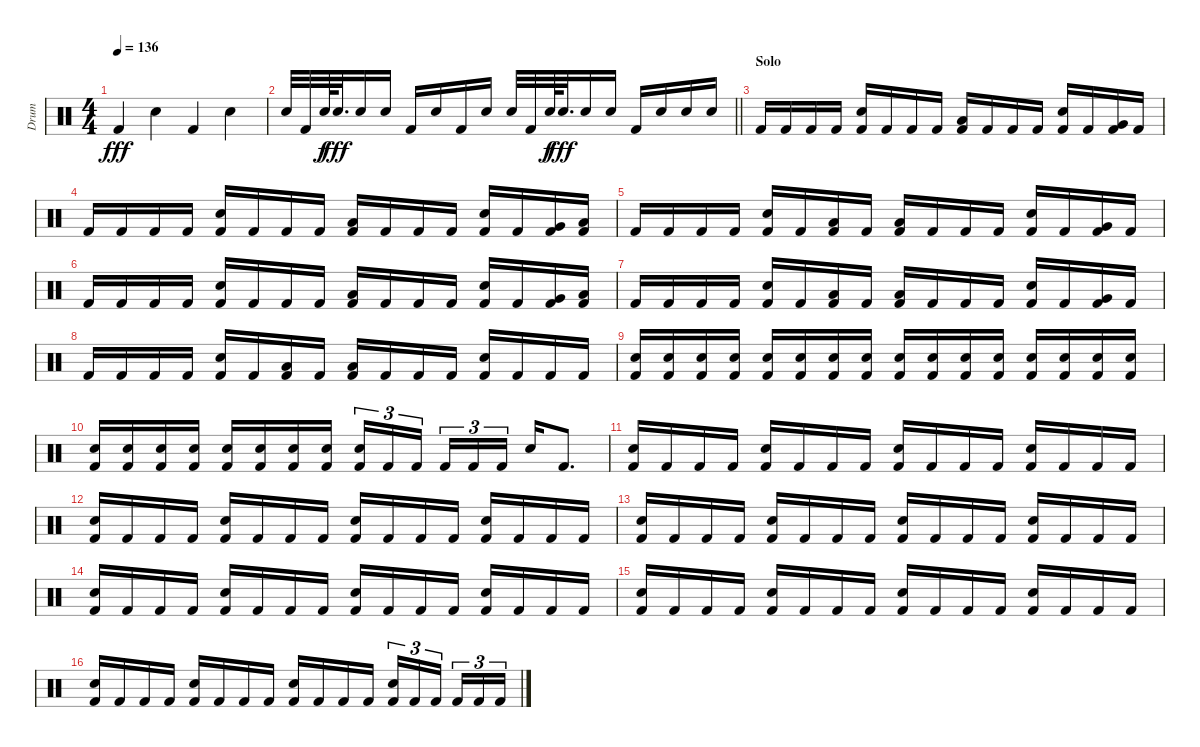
\track ("Drum" "Drum") {instrument percussion}
\staff {score}
\articulation defaults
\ts (4 4)
\tempo 136
\clef neutral
\ks c "Kick (hit) 2".4{dy fff} "Electric Snare (hit)".4 "Kick (hit) 2".4 "Electric Snare (hit)".4
|
\barLineRight lightlight "Electric Snare (hit)".32 "Kick (hit) 2".32 "Electric Snare (hit)".64{dy f} "Electric Snare (hit)".32{d dy fff} "Electric Snare (hit)".16 "Electric Snare (hit)".16 "Kick (hit) 2".16 "Electric Snare (hit)".16 "Kick (hit) 2".16 "Electric Snare (hit)".16 "Electric Snare (hit)".32 "Kick (hit) 2".32 "Electric Snare (hit)".64{dy f} "Electric Snare (hit)".32{d dy fff} "Electric Snare (hit)".16 "Electric Snare (hit)".16 "Kick (hit) 2".16 "Electric Snare (hit)".16 "Electric Snare (hit)".16 "Electric Snare (hit)".16
|
\section ("" "Solo")
"Kick (hit) 2".16 "Kick (hit) 2".16 "Kick (hit) 2".16 "Kick (hit) 2".16 ("Electric Snare (hit)" "Kick (hit) 2").16 "Kick (hit) 2".16 "Kick (hit) 2".16 "Kick (hit) 2".16 ("Low Tom (hit)" "Kick (hit) 2").16 "Kick (hit) 2".16 "Kick (hit) 2".16 "Kick (hit) 2".16 ("Electric Snare (hit)" "Kick (hit) 2").16 "Kick (hit) 2".16 ("Very Low Tom (hit)" "Kick (hit) 2").16 "Kick (hit) 2".16 |
"Kick (hit) 2".16 "Kick (hit) 2".16 "Kick (hit) 2".16 "Kick (hit) 2".16 ("Electric Snare (hit)" "Kick (hit) 2").16 "Kick (hit) 2".16 "Kick (hit) 2".16 "Kick (hit) 2".16 ("Low Tom (hit)" "Kick (hit) 2").16 "Kick (hit) 2".16 "Kick (hit) 2".16 "Kick (hit) 2".16 ("Electric Snare (hit)" "Kick (hit) 2").16 "Kick (hit) 2".16 ("Very Low Tom (hit)" "Kick (hit) 2").16 ("Low Floor Tom (hit)" "Kick (hit) 2").16 |
"Kick (hit) 2".16 "Kick (hit) 2".16 "Kick (hit) 2".16 "Kick (hit) 2".16 ("Electric Snare (hit)" "Kick (hit) 2").16 "Kick (hit) 2".16 ("Low Tom (hit)" "Kick (hit) 2").16 "Kick (hit) 2".16 ("Low Tom (hit)" "Kick (hit) 2").16 "Kick (hit) 2".16 "Kick (hit) 2".16 "Kick (hit) 2".16 ("Electric Snare (hit)" "Kick (hit) 2").16 "Kick (hit) 2".16 ("Very Low Tom (hit)" "Kick (hit) 2").16 "Kick (hit) 2".16 |
"Kick (hit) 2".16 "Kick (hit) 2".16 "Kick (hit) 2".16 "Kick (hit) 2".16 ("Electric Snare (hit)" "Kick (hit) 2").16 "Kick (hit) 2".16 "Kick (hit) 2".16 "Kick (hit) 2".16 ("Low Tom (hit)" "Kick (hit) 2").16 "Kick (hit) 2".16 "Kick (hit) 2".16 "Kick (hit) 2".16 ("Electric Snare (hit)" "Kick (hit) 2").16 "Kick (hit) 2".16 ("Very Low Tom (hit)" "Kick (hit) 2").16 ("Low Floor Tom (hit)" "Kick (hit) 2").16 |
"Kick (hit) 2".16 "Kick (hit) 2".16 "Kick (hit) 2".16 "Kick (hit) 2".16 ("Electric Snare (hit)" "Kick (hit) 2").16 "Kick (hit) 2".16 ("Low Tom (hit)" "Kick (hit) 2").16 "Kick (hit) 2".16 ("Low Tom (hit)" "Kick (hit) 2").16 "Kick (hit) 2".16 "Kick (hit) 2".16 "Kick (hit) 2".16 ("Electric Snare (hit)" "Kick (hit) 2").16 "Kick (hit) 2".16 ("Very Low Tom (hit)" "Kick (hit) 2").16 "Kick (hit) 2".16 |
"Kick (hit) 2".16 "Kick (hit) 2".16 "Kick (hit) 2".16 "Kick (hit) 2".16 ("Electric Snare (hit)" "Kick (hit) 2").16 "Kick (hit) 2".16 ("Low Tom (hit)" "Kick (hit) 2").16 "Kick (hit) 2".16 ("Low Tom (hit)" "Kick (hit) 2").16 "Kick (hit) 2".16 "Kick (hit) 2".16 "Kick (hit) 2".16 ("Electric Snare (hit)" "Kick (hit) 2").16 "Kick (hit) 2".16 "Kick (hit) 2".16 "Kick (hit) 2".16 |
("Electric Snare (hit)" "Kick (hit) 2").16 ("Electric Snare (hit)" "Kick (hit) 2").16 ("Electric Snare (hit)" "Kick (hit) 2").16 ("Electric Snare (hit)" "Kick (hit) 2").16 ("Electric Snare (hit)" "Kick (hit) 2").16 ("Electric Snare (hit)" "Kick (hit) 2").16 ("Electric Snare (hit)" "Kick (hit) 2").16 ("Electric Snare (hit)" "Kick (hit) 2").16 ("Electric Snare (hit)" "Kick (hit) 2").16 ("Electric Snare (hit)" "Kick (hit) 2").16 ("Electric Snare (hit)" "Kick (hit) 2").16 ("Electric Snare (hit)" "Kick (hit) 2").16 ("Electric Snare (hit)" "Kick (hit) 2").16 ("Electric Snare (hit)" "Kick (hit) 2").16 ("Electric Snare (hit)" "Kick (hit) 2").16 ("Electric Snare (hit)" "Kick (hit) 2").16 |
("Electric Snare (hit)" "Kick (hit) 2").16 ("Electric Snare (hit)" "Kick (hit) 2").16 ("Electric Snare (hit)" "Kick (hit) 2").16 ("Electric Snare (hit)" "Kick (hit) 2").16 ("Electric Snare (hit)" "Kick (hit) 2").16 ("Electric Snare (hit)" "Kick (hit) 2").16 ("Electric Snare (hit)" "Kick (hit) 2").16 ("Electric Snare (hit)" "Kick (hit) 2").16 ("Electric Snare (hit)" "Kick (hit) 2").16{tu (3 2)} "Kick (hit) 2".16{tu (3 2)} "Kick (hit) 2".16{tu (3 2) beam splitsecondary} "Kick (hit) 2".16{tu (3 2)} "Kick (hit) 2".16{tu (3 2)} "Kick (hit) 2".16{tu (3 2)} "Electric Snare (hit)".16 "Kick (hit) 2".8{d} |
("Electric Snare (hit)" "Kick (hit) 2").16 "Kick (hit) 2".16 "Kick (hit) 2".16 "Kick (hit) 2".16 ("Electric Snare (hit)" "Kick (hit) 2").16 "Kick (hit) 2".16 "Kick (hit) 2".16 "Kick (hit) 2".16 ("Electric Snare (hit)" "Kick (hit) 2").16 "Kick (hit) 2".16 "Kick (hit) 2".16 "Kick (hit) 2".16 ("Electric Snare (hit)" "Kick (hit) 2").16 "Kick (hit) 2".16 "Kick (hit) 2".16 "Kick (hit) 2".16 |
("Electric Snare (hit)" "Kick (hit) 2").16 "Kick (hit) 2".16 "Kick (hit) 2".16 "Kick (hit) 2".16 ("Electric Snare (hit)" "Kick (hit) 2").16 "Kick (hit) 2".16 "Kick (hit) 2".16 "Kick (hit) 2".16 ("Electric Snare (hit)" "Kick (hit) 2").16 "Kick (hit) 2".16 "Kick (hit) 2".16 "Kick (hit) 2".16 ("Electric Snare (hit)" "Kick (hit) 2").16 "Kick (hit) 2".16 "Kick (hit) 2".16 "Kick (hit) 2".16 |
("Electric Snare (hit)" "Kick (hit) 2").16 "Kick (hit) 2".16 "Kick (hit) 2".16 "Kick (hit) 2".16 ("Electric Snare (hit)" "Kick (hit) 2").16 "Kick (hit) 2".16 "Kick (hit) 2".16 "Kick (hit) 2".16 ("Electric Snare (hit)" "Kick (hit) 2").16 "Kick (hit) 2".16 "Kick (hit) 2".16 "Kick (hit) 2".16 ("Electric Snare (hit)" "Kick (hit) 2").16 "Kick (hit) 2".16 "Kick (hit) 2".16 "Kick (hit) 2".16 |
("Electric Snare (hit)" "Kick (hit) 2").16 "Kick (hit) 2".16 "Kick (hit) 2".16 "Kick (hit) 2".16 ("Electric Snare (hit)" "Kick (hit) 2").16 "Kick (hit) 2".16 "Kick (hit) 2".16 "Kick (hit) 2".16 ("Electric Snare (hit)" "Kick (hit) 2").16 "Kick (hit) 2".16 "Kick (hit) 2".16 "Kick (hit) 2".16 ("Electric Snare (hit)" "Kick (hit) 2").16 "Kick (hit) 2".16 "Kick (hit) 2".16 "Kick (hit) 2".16 |
("Electric Snare (hit)" "Kick (hit) 2").16 "Kick (hit) 2".16 "Kick (hit) 2".16 "Kick (hit) 2".16 ("Electric Snare (hit)" "Kick (hit) 2").16 "Kick (hit) 2".16 "Kick (hit) 2".16 "Kick (hit) 2".16 ("Electric Snare (hit)" "Kick (hit) 2").16 "Kick (hit) 2".16 "Kick (hit) 2".16 "Kick (hit) 2".16 ("Electric Snare (hit)" "Kick (hit) 2").16 "Kick (hit) 2".16 "Kick (hit) 2".16 "Kick (hit) 2".16 |
("Electric Snare (hit)" "Kick (hit) 2").16 "Kick (hit) 2".16 "Kick (hit) 2".16 "Kick (hit) 2".16 ("Electric Snare (hit)" "Kick (hit) 2").16 "Kick (hit) 2".16 "Kick (hit) 2".16 "Kick (hit) 2".16 ("Electric Snare (hit)" "Kick (hit) 2").16 "Kick (hit) 2".16 "Kick (hit) 2".16 "Kick (hit) 2".16 ("Electric Snare (hit)" "Kick (hit) 2").16{tu (3 2)} "Kick (hit) 2".16{tu (3 2)} "Kick (hit) 2".16{tu (3 2) beam splitsecondary} "Kick (hit) 2".16{tu (3 2)} "Kick (hit) 2".16{tu (3 2)} "Kick (hit) 2".16{tu (3 2)}
